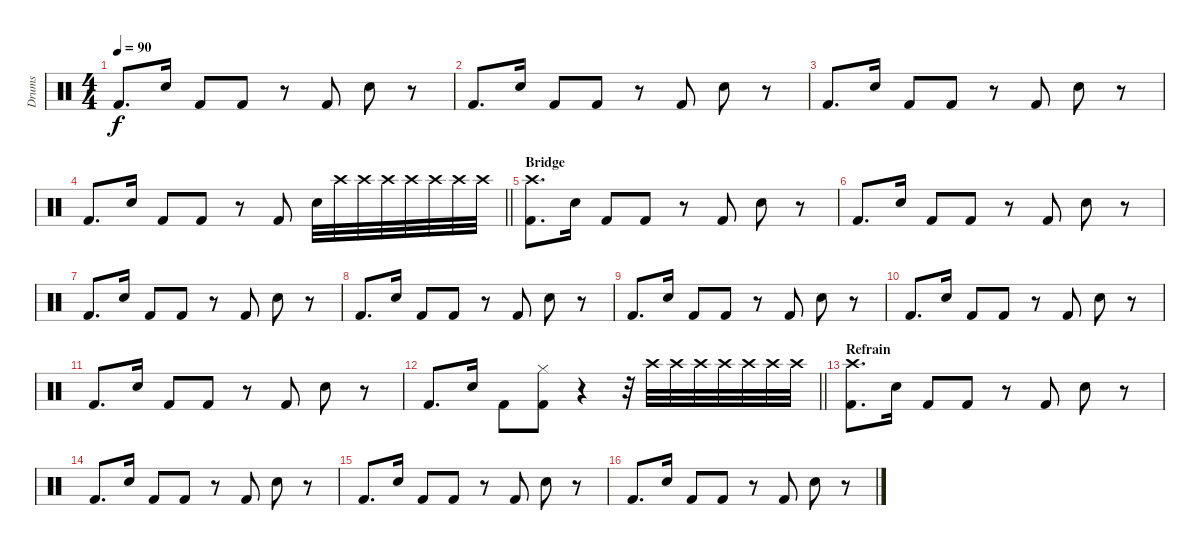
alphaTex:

\track ("Drums" "Drums") {instrument percussion}
\staff {score}
\articulation defaults
\ts (4 4)
\tempo 90
\clef neutral
\ks c "Kick (hit) 2".8{d dy f} "Hand Clap (hit)".16 "Kick (hit) 2".8 "Kick (hit) 2".8
r.8 "Kick (hit) 2".8 "Hand Clap (hit)".8 r.8 |
"Kick (hit) 2".8{d} "Hand Clap (hit)".16 "Kick (hit) 2".8 "Kick (hit) 2".8 r.8 "Kick (hit) 2".8 "Hand Clap (hit)".8 r.8 |
"Kick (hit) 2".8{d} "Hand Clap (hit)".16 "Kick (hit) 2".8 "Kick (hit) 2".8 r.8 "Kick (hit) 2".8 "Hand Clap (hit)".8 r.8 |
\barLineRight lightlight "Kick (hit) 2".8{d} "Hand Clap (hit)".16 "Kick (hit) 2".8 "Kick (hit) 2".8
r.8 "Kick (hit) 2".8 "Hand Clap (hit)".32 "Crash high (hit)".32{volume 6} "Crash high (hit)".32{volume 7} "Crash high (hit)".32{volume 8} "Crash high (hit)".32{volume 9} "Crash high (hit)".32{volume 10} "Crash high (hit)".32{volume 11} "Crash high (hit)".32{volume 12} |
\section ("" "Bridge")
("Kick (hit) 2" "Crash high (hit)").8{d} "Hand Clap (hit)".16 "Kick (hit) 2".8 "Kick (hit) 2".8 r.8 "Kick (hit) 2".8 "Hand Clap (hit)".8 r.8 |
"Kick (hit) 2".8{d} "Hand Clap (hit)".16 "Kick (hit) 2".8 "Kick (hit) 2".8 r.8 "Kick (hit) 2".8 "Hand Clap (hit)".8 r.8 |
"Kick (hit) 2".8{d} "Hand Clap (hit)".16 "Kick (hit) 2".8 "Kick (hit) 2".8 r.8 "Kick (hit) 2".8 "Hand Clap (hit)".8 r.8 |
"Kick (hit) 2".8{d} "Hand Clap (hit)".16 "Kick (hit) 2".8 "Kick (hit) 2".8 r.8 "Kick (hit) 2".8 "Hand Clap (hit)".8 r.8 |
"Kick (hit) 2".8{d} "Hand Clap (hit)".16 "Kick (hit) 2".8 "Kick (hit) 2".8 r.8 "Kick (hit) 2".8 "Hand Clap (hit)".8 r.8 |
"Kick (hit) 2".8{d} "Hand Clap (hit)".16 "Kick (hit) 2".8 "Kick (hit) 2".8 r.8 "Kick (hit) 2".8 "Hand Clap (hit)".8 r.8 |
"Kick (hit) 2".8{d} "Hand Clap (hit)".16 "Kick (hit) 2".8 "Kick (hit) 2".8 r.8 "Kick (hit) 2".8 "Hand Clap (hit)".8 r.8 |
\barLineRight lightlight "Kick (hit) 2".8{d} "Hand Clap (hit)".16 "Kick (hit) 2".8
("Hi-Hat (closed)" "Kick (hit) 2").8 r.4 r.32 "Crash high (hit)".32{volume 6} "Crash high (hit)".32{volume 7} "Crash high (hit)".32{volume 8} "Crash high (hit)".32{volume 9} "Crash high (hit)".32{volume 10} "Crash high (hit)".32{volume 11} "Crash high (hit)".32{volume 12} |
\section ("" "Refrain")
("Kick (hit) 2" "Crash high (hit)").8{d} "Hand Clap (hit)".16 "Kick (hit) 2".8 "Kick (hit) 2".8 r.8 "Kick (hit) 2".8 "Hand Clap (hit)".8 r.8 |
"Kick (hit) 2".8{d} "Hand Clap (hit)".16 "Kick (hit) 2".8 "Kick (hit) 2".8 r.8 "Kick (hit) 2".8 "Hand Clap (hit)".8 r.8 |
"Kick (hit) 2".8{d} "Hand Clap (hit)".16 "Kick (hit) 2".8 "Kick (hit) 2".8 r.8 "Kick (hit) 2".8 "Hand Clap (hit)".8 r.8 |
"Kick (hit) 2".8{d} "Hand Clap (hit)".16 "Kick (hit) 2".8 "Kick (hit) 2".8 r.8 "Kick (hit) 2".8 "Hand Clap (hit)".8 r.8
